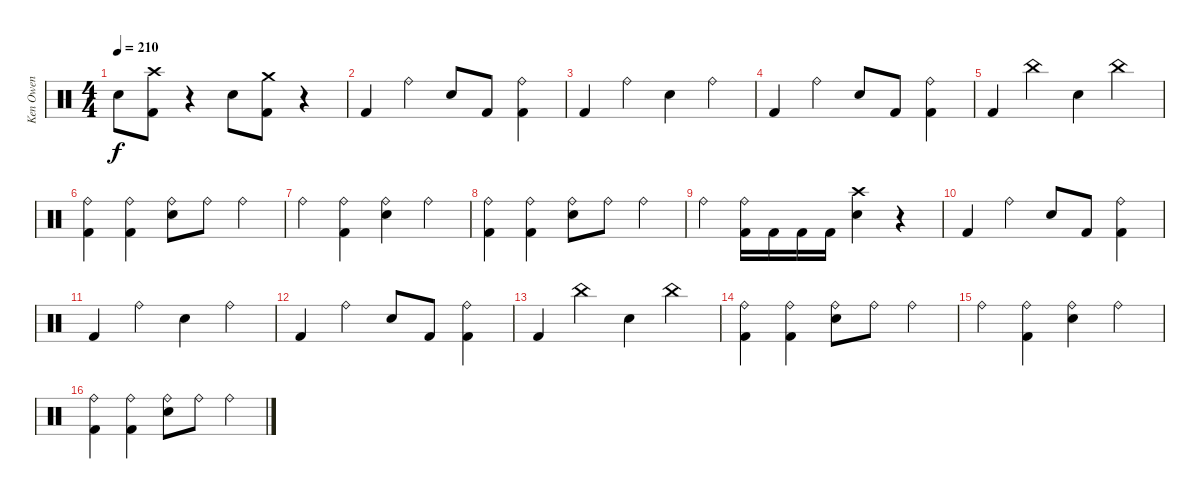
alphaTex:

\track ("Ken Owen" "Ken Owen") {instrument percussion}
\staff {score}
\articulation defaults
\ts (4 4)
\tempo 210
\clef neutral
\ks c "Snare (hit) 2".8{dy f}
("Crash high (hit)" "Kick (hit) 2").8 r.4 "Snare (hit) 2".8 ("Crash medium (hit)" "Kick (hit) 2").8 r.4 |
"Kick (hit) 2".4 "Ride (bell)".4 "Snare (hit) 2".8 "Kick (hit) 2".8 ("Ride (bell)" "Kick (hit) 2").4 |
"Kick (hit) 2".4 "Ride (bell)".4 "Snare (hit) 2".4 "Ride (bell)".4 |
"Kick (hit) 2".4 "Ride (bell)".4 "Snare (hit) 2".8 "Kick (hit) 2".8 ("Ride (bell)" "Kick (hit) 2").4 |
"Kick (hit) 2".4 "China (hit)".4 "Snare (hit) 2".4 "China (hit)".4 |
("Ride (bell)" "Kick (hit) 2").4 ("Ride (bell)" "Kick (hit) 2").4 ("Ride (bell)" "Snare (hit) 2").8 "Ride (bell)".8 "Ride (bell)".4 |
"Ride (bell)".4 ("Ride (bell)" "Kick (hit) 2").4 ("Ride (bell)" "Snare (hit) 2").4 "Ride (bell)".4 |
("Ride (bell)" "Kick (hit) 2").4 ("Ride (bell)" "Kick (hit) 2").4 ("Ride (bell)" "Snare (hit) 2").8 "Ride (bell)".8 "Ride (bell)".4 |
"Ride (bell)".4 ("Ride (bell)" "Kick (hit) 2").16 "Kick (hit) 2".16 "Kick (hit) 2".16 "Kick (hit) 2".16 ("Crash high (hit)" "Snare (hit) 2").4 r.4 |
"Kick (hit) 2".4 "Ride (bell)".4 "Snare (hit) 2".8 "Kick (hit) 2".8 ("Ride (bell)" "Kick (hit) 2").4 |
"Kick (hit) 2".4 "Ride (bell)".4 "Snare (hit) 2".4 "Ride (bell)".4 |
"Kick (hit) 2".4 "Ride (bell)".4 "Snare (hit) 2".8 "Kick (hit) 2".8 ("Ride (bell)" "Kick (hit) 2").4 |
"Kick (hit) 2".4 "China (hit)".4 "Snare (hit) 2".4 "China (hit)".4 |
("Ride (bell)" "Kick (hit) 2").4 ("Ride (bell)" "Kick (hit) 2").4 ("Ride (bell)" "Snare (hit) 2").8 "Ride (bell)".8 "Ride (bell)".4 |
"Ride (bell)".4 ("Ride (bell)" "Kick (hit) 2").4 ("Ride (bell)" "Snare (hit) 2").4 "Ride (bell)".4 |
("Ride (bell)" "Kick (hit) 2").4 ("Ride (bell)" "Kick (hit) 2").4 ("Ride (bell)" "Snare (hit) 2").8 "Ride (bell)".8 "Ride (bell)".4
